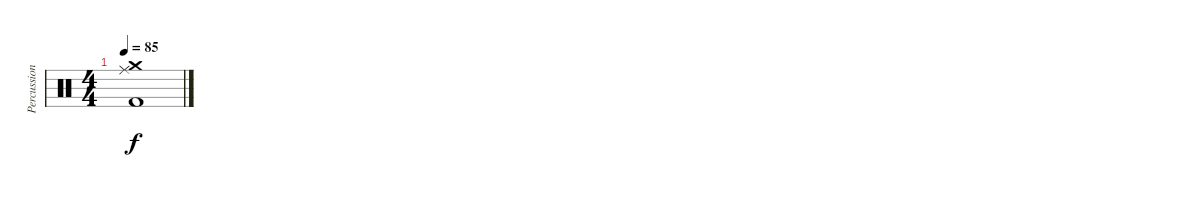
\track ("Percussion" "Percussion") {instrument percussion}
\staff {score}
\articulation defaults
\ts (4 4)
\tempo 85
\clef neutral
\ks c
("Crash medium (hit)" "Ride (middle)" "Kick (hit) 2").1{dy f}
